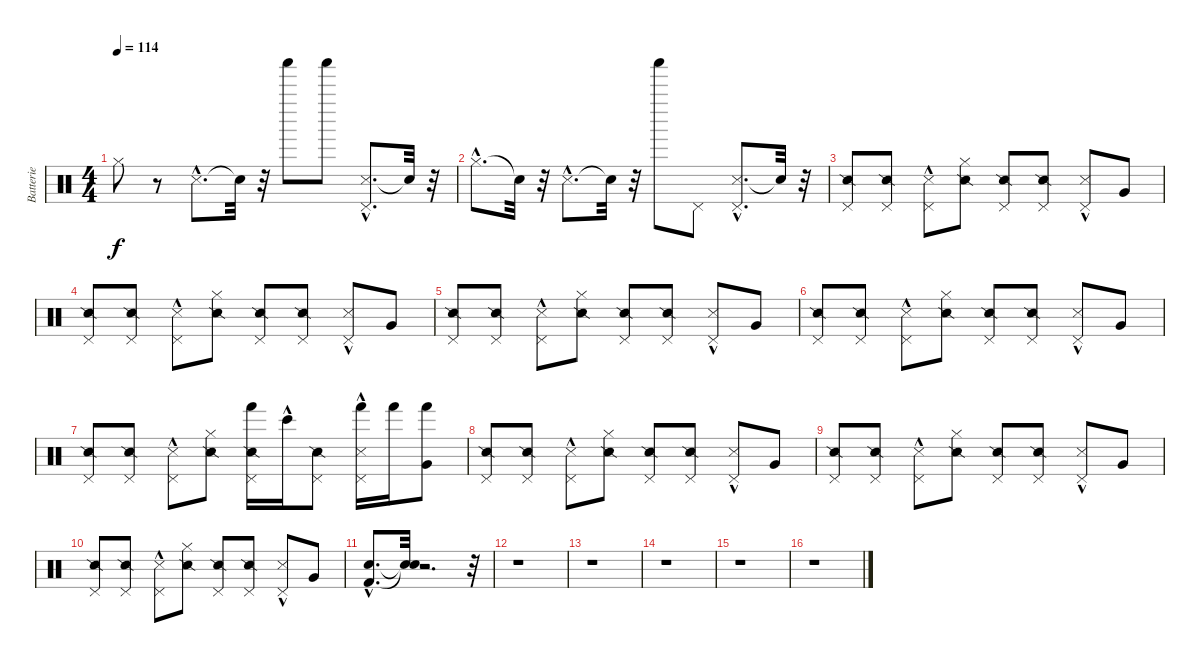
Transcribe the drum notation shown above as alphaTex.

\track ("Batterie" "Batterie") {instrument percussion}
\staff {score}
\articulation defaults
\ts (4 4)
\tempo 114
\clef neutral
\ks c "Hi-Hat (closed)".8{dy f}
r.8 "Snare (side stick) 3"{hac}.8{d} "Snare (hit)"{t}.32 r.32 "Shaker (hit)".8 "Shaker (hit)".8 ("Snare (side stick) 3"{hac} "Pedal Hi-Hat (hit)").8{d} "Snare (hit)"{t}.32 r.32 |
"Hi-Hat (closed)"{hac}.8{d} "Snare (hit)"{t}.32 r.32 "Snare (side stick) 3"{hac}.8{d} "Snare (hit)"{t}.32 r.32 "Shaker (hit)".8 "Pedal Hi-Hat (hit)".8 ("Snare (side stick) 3"{hac} "Pedal Hi-Hat (hit)").8{d} "Snare (hit)"{t}.32 r.32 |
("Snare (side stick) 2" "Pedal Hi-Hat (hit)").8 ("Snare (side stick) 2" "Pedal Hi-Hat (hit)").8 ("Snare (side stick) 3"{hac} "Pedal Hi-Hat (hit)").8 ("Snare (side stick) 2" "Hi-Hat (closed)").8 ("Snare (side stick) 2" "Pedal Hi-Hat (hit)").8 ("Snare (side stick) 2" "Pedal Hi-Hat (hit)").8 ("Snare (side stick) 3"{hac} "Pedal Hi-Hat (hit)").8 "Very Low Tom (hit)".8 |
("Snare (side stick) 2" "Pedal Hi-Hat (hit)").8 ("Snare (side stick) 2" "Pedal Hi-Hat (hit)").8 ("Snare (side stick) 3"{hac} "Pedal Hi-Hat (hit)").8 ("Snare (side stick) 2" "Hi-Hat (closed)").8 ("Snare (side stick) 2" "Pedal Hi-Hat (hit)").8 ("Snare (side stick) 2" "Pedal Hi-Hat (hit)").8 ("Snare (side stick) 3"{hac} "Pedal Hi-Hat (hit)").8 "Very Low Tom (hit)".8 |
("Snare (side stick) 2" "Pedal Hi-Hat (hit)").8 ("Snare (side stick) 2" "Pedal Hi-Hat (hit)").8 ("Snare (side stick) 3"{hac} "Pedal Hi-Hat (hit)").8 ("Snare (side stick) 2" "Hi-Hat (closed)").8 ("Snare (side stick) 2" "Pedal Hi-Hat (hit)").8 ("Snare (side stick) 2" "Pedal Hi-Hat (hit)").8 ("Snare (side stick) 3"{hac} "Pedal Hi-Hat (hit)").8 "Very Low Tom (hit)".8 |
("Snare (side stick) 2" "Pedal Hi-Hat (hit)").8 ("Snare (side stick) 2" "Pedal Hi-Hat (hit)").8 ("Snare (side stick) 3"{hac} "Pedal Hi-Hat (hit)").8 ("Snare (side stick) 2" "Hi-Hat (closed)").8 ("Snare (side stick) 2" "Pedal Hi-Hat (hit)").8 ("Snare (side stick) 2" "Pedal Hi-Hat (hit)").8 ("Snare (side stick) 3"{hac} "Pedal Hi-Hat (hit)").8 "Very Low Tom (hit)".8 |
("Snare (side stick) 2" "Pedal Hi-Hat (hit)").8 ("Snare (side stick) 2" "Pedal Hi-Hat (hit)").8 ("Snare (side stick) 3"{hac} "Pedal Hi-Hat (hit)").8 ("Snare (side stick) 2" "Hi-Hat (closed)").8 ("Snare (side stick) 2" "Pedal Hi-Hat (hit)" "Hand (hit)").16 "Bongo High (hit)"{hac}.16 ("Snare (side stick) 2" "Pedal Hi-Hat (hit)").8 ("Snare (side stick) 3"{hac} "Pedal Hi-Hat (hit)" "Hand (hit)").16 "Hand (hit)".16 ("Very Low Tom (hit)" "Hand (hit)").8 |
("Snare (side stick) 2" "Pedal Hi-Hat (hit)").8 ("Snare (side stick) 2" "Pedal Hi-Hat (hit)").8 ("Snare (side stick) 3"{hac} "Pedal Hi-Hat (hit)").8 ("Snare (side stick) 2" "Hi-Hat (closed)").8 ("Snare (side stick) 2" "Pedal Hi-Hat (hit)").8 ("Snare (side stick) 2" "Pedal Hi-Hat (hit)").8 ("Snare (side stick) 3"{hac} "Pedal Hi-Hat (hit)").8 "Very Low Tom (hit)".8 |
("Snare (side stick) 2" "Pedal Hi-Hat (hit)").8 ("Snare (side stick) 2" "Pedal Hi-Hat (hit)").8 ("Snare (side stick) 3"{hac} "Pedal Hi-Hat (hit)").8 ("Snare (side stick) 2" "Hi-Hat (closed)").8 ("Snare (side stick) 2" "Pedal Hi-Hat (hit)").8 ("Snare (side stick) 2" "Pedal Hi-Hat (hit)").8 ("Snare (side stick) 3"{hac} "Pedal Hi-Hat (hit)").8 "Very Low Tom (hit)".8 |
("Snare (side stick) 2" "Pedal Hi-Hat (hit)").8 ("Snare (side stick) 2" "Pedal Hi-Hat (hit)").8 ("Snare (side stick) 3"{hac} "Pedal Hi-Hat (hit)").8 ("Snare (side stick) 2" "Hi-Hat (closed)").8 ("Snare (side stick) 2" "Pedal Hi-Hat (hit)").8 ("Snare (side stick) 2" "Pedal Hi-Hat (hit)").8 ("Snare (side stick) 3"{hac} "Pedal Hi-Hat (hit)").8 "Very Low Tom (hit)".8 |
("Kick (hit) 2"{hac} "Metronome (bell)"{hac}).8{d} ("Snare (hit)"{t} "Snare (hit)"{t}).32 r.2{d} r.32 |
r.1 |
r.1 |
r.1 |
r.1 |
r.1
